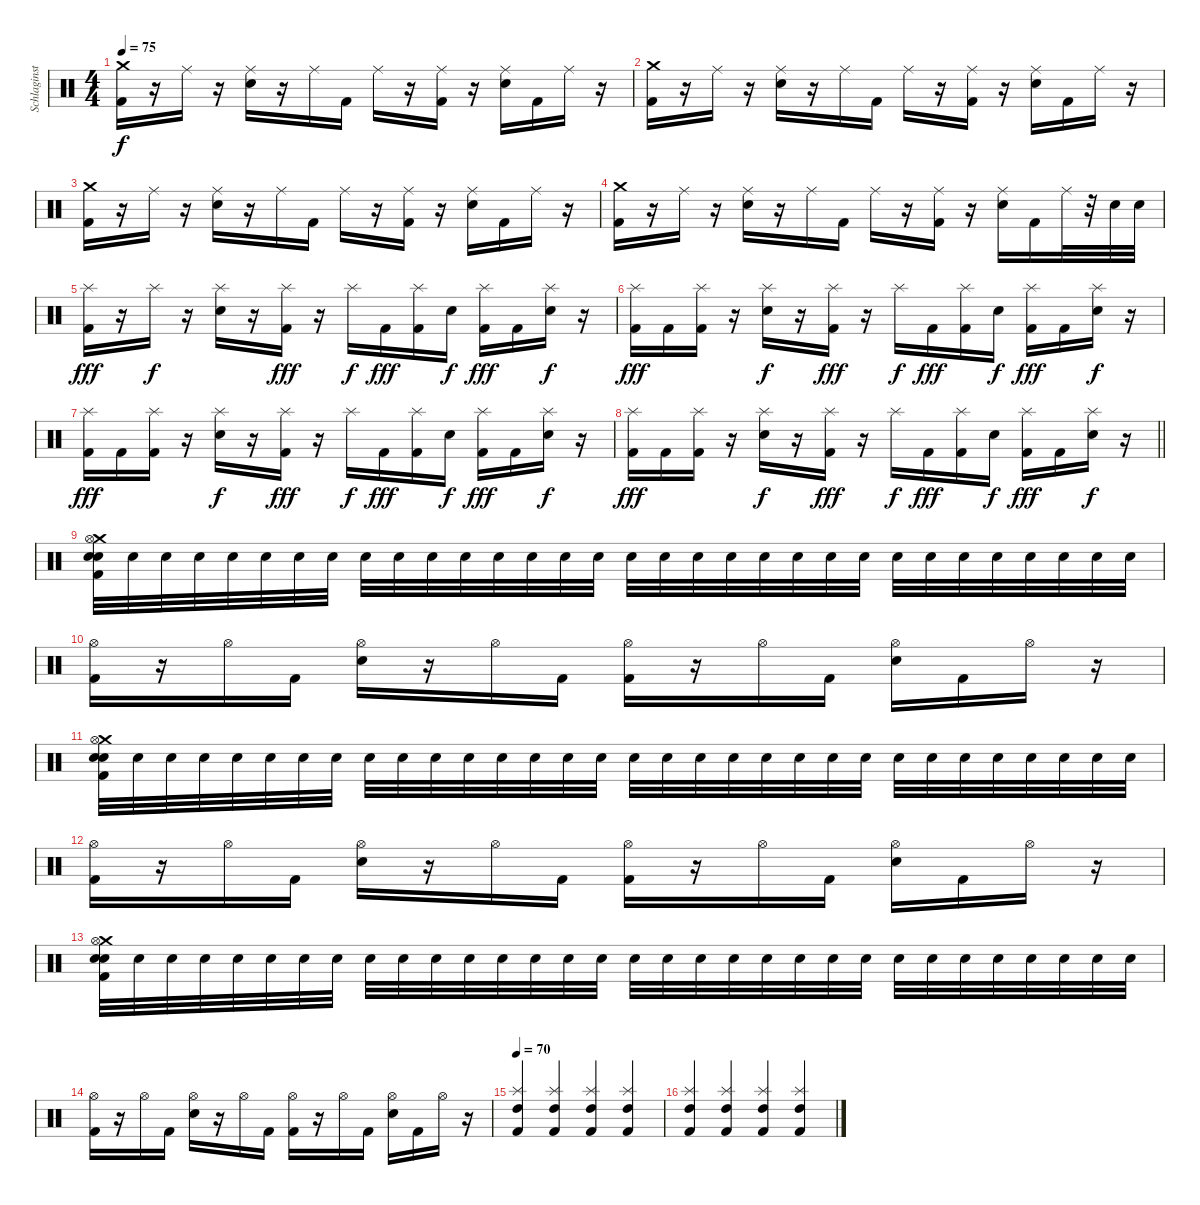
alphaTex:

\track ("Schlaginstrumente - Auswahl" "Schlaginst") {instrument percussion}
\staff {score}
\articulation defaults
\ts (4 4)
\tempo 75
\clef neutral
\ks c
("Crash medium (hit)" "Kick (hit) 2").16{dy f} r.16 "Ride (middle)".16 r.16 ("Ride (middle)" "Electric Snare (hit)").16 r.16 "Ride (middle)".16 "Kick (hit) 2".16 "Ride (middle)".16 r.16 ("Ride (middle)" "Kick (hit) 2").16 r.16 ("Ride (middle)" "Electric Snare (hit)").16 "Kick (hit) 2".16 "Ride (middle)".16 r.16 |
("Crash medium (hit)" "Kick (hit) 2").16 r.16 "Ride (middle)".16 r.16 ("Ride (middle)" "Electric Snare (hit)").16 r.16 "Ride (middle)".16 "Kick (hit) 2".16 "Ride (middle)".16 r.16 ("Ride (middle)" "Kick (hit) 2").16 r.16 ("Ride (middle)" "Electric Snare (hit)").16 "Kick (hit) 2".16 "Ride (middle)".16 r.16 |
("Crash medium (hit)" "Kick (hit) 2").16 r.16 "Ride (middle)".16 r.16 ("Ride (middle)" "Electric Snare (hit)").16 r.16 "Ride (middle)".16 "Kick (hit) 2".16 "Ride (middle)".16 r.16 ("Ride (middle)" "Kick (hit) 2").16 r.16 ("Ride (middle)" "Electric Snare (hit)").16 "Kick (hit) 2".16 "Ride (middle)".16 r.16 |
("Crash medium (hit)" "Kick (hit) 2").16 r.16 "Ride (middle)".16 r.16 ("Ride (middle)" "Electric Snare (hit)").16 r.16 "Ride (middle)".16 "Kick (hit) 2".16 "Ride (middle)".16 r.16 ("Ride (middle)" "Kick (hit) 2").16 r.16 ("Ride (middle)" "Electric Snare (hit)").16 "Kick (hit) 2".16 "Ride (middle)".32 r.32 "Electric Snare (hit)".32 "Electric Snare (hit)".32 |
("Splash (hit)" "Kick (hit) 2").16{dy fff} r.16 "Splash (hit)".16{dy f} r.16 ("Splash (hit)" "Electric Snare (hit)").16 r.16 ("Splash (hit)" "Kick (hit) 2").16{dy fff} r.16 "Splash (hit)".16{dy f} "Kick (hit) 2".16{dy fff} ("Splash (hit)" "Kick (hit) 2").16 "Electric Snare (hit)".16{dy f} ("Splash (hit)" "Kick (hit) 2").16{dy fff} "Kick (hit) 2".16 ("Splash (hit)" "Electric Snare (hit)").16{dy f} r.16 |
("Splash (hit)" "Kick (hit) 2").16{dy fff} "Kick (hit) 2".16 ("Splash (hit)" "Kick (hit) 2").16 r.16 ("Splash (hit)" "Electric Snare (hit)").16{dy f} r.16 ("Splash (hit)" "Kick (hit) 2").16{dy fff} r.16 "Splash (hit)".16{dy f} "Kick (hit) 2".16{dy fff} ("Splash (hit)" "Kick (hit) 2").16 "Electric Snare (hit)".16{dy f} ("Splash (hit)" "Kick (hit) 2").16{dy fff} "Kick (hit) 2".16 ("Splash (hit)" "Electric Snare (hit)").16{dy f} r.16 |
("Splash (hit)" "Kick (hit) 2").16{dy fff} "Kick (hit) 2".16 ("Splash (hit)" "Kick (hit) 2").16 r.16 ("Splash (hit)" "Electric Snare (hit)").16{dy f} r.16 ("Splash (hit)" "Kick (hit) 2").16{dy fff} r.16 "Splash (hit)".16{dy f} "Kick (hit) 2".16{dy fff} ("Splash (hit)" "Kick (hit) 2").16 "Electric Snare (hit)".16{dy f} ("Splash (hit)" "Kick (hit) 2").16{dy fff} "Kick (hit) 2".16 ("Splash (hit)" "Electric Snare (hit)").16{dy f} r.16 |
\barLineRight lightlight
("Splash (hit)" "Kick (hit) 2").16{dy fff} "Kick (hit) 2".16 ("Splash (hit)" "Kick (hit) 2").16 r.16 ("Splash (hit)" "Electric Snare (hit)").16{dy f} r.16 ("Splash (hit)" "Kick (hit) 2").16{dy fff} r.16 "Splash (hit)".16{dy f} "Kick (hit) 2".16{dy fff} ("Splash (hit)" "Kick (hit) 2").16 "Electric Snare (hit)".16{dy f} ("Splash (hit)" "Kick (hit) 2").16{dy fff} "Kick (hit) 2".16 ("Splash (hit)" "Electric Snare (hit)").16{dy f} r.16 |
("Crash medium (hit)" "Hi-Hat (open)" "Electric Snare (hit)" "Kick (hit) 2" "Electric Snare (hit)").32 "Electric Snare (hit)".32 "Electric Snare (hit)".32 "Electric Snare (hit)".32 "Electric Snare (hit)".32 "Electric Snare (hit)".32 "Electric Snare (hit)".32 "Electric Snare (hit)".32 "Electric Snare (hit)".32 "Electric Snare (hit)".32 "Electric Snare (hit)".32 "Electric Snare (hit)".32 "Electric Snare (hit)".32 "Electric Snare (hit)".32 "Electric Snare (hit)".32 "Electric Snare (hit)".32 "Electric Snare (hit)".32 "Electric Snare (hit)".32 "Electric Snare (hit)".32 "Electric Snare (hit)".32 "Electric Snare (hit)".32 "Electric Snare (hit)".32 "Electric Snare (hit)".32 "Electric Snare (hit)".32 "Electric Snare (hit)".32 "Electric Snare (hit)".32 "Electric Snare (hit)".32 "Electric Snare (hit)".32 "Electric Snare (hit)".32 "Electric Snare (hit)".32 "Electric Snare (hit)".32 "Electric Snare (hit)".32 |
("Hi-Hat (open)" "Kick (hit) 2").16 r.16 "Hi-Hat (open)".16 "Kick (hit) 2".16 ("Hi-Hat (open)" "Electric Snare (hit)").16 r.16 "Hi-Hat (open)".16 "Kick (hit) 2".16 ("Hi-Hat (open)" "Kick (hit) 2").16 r.16 "Hi-Hat (open)".16 "Kick (hit) 2".16 ("Hi-Hat (open)" "Electric Snare (hit)").16 "Kick (hit) 2".16 "Hi-Hat (open)".16 r.16 |
("Crash medium (hit)" "Hi-Hat (open)" "Electric Snare (hit)" "Kick (hit) 2" "Electric Snare (hit)").32 "Electric Snare (hit)".32 "Electric Snare (hit)".32 "Electric Snare (hit)".32 "Electric Snare (hit)".32 "Electric Snare (hit)".32 "Electric Snare (hit)".32 "Electric Snare (hit)".32 "Electric Snare (hit)".32 "Electric Snare (hit)".32 "Electric Snare (hit)".32 "Electric Snare (hit)".32 "Electric Snare (hit)".32 "Electric Snare (hit)".32 "Electric Snare (hit)".32 "Electric Snare (hit)".32 "Electric Snare (hit)".32 "Electric Snare (hit)".32 "Electric Snare (hit)".32 "Electric Snare (hit)".32 "Electric Snare (hit)".32 "Electric Snare (hit)".32 "Electric Snare (hit)".32 "Electric Snare (hit)".32 "Electric Snare (hit)".32 "Electric Snare (hit)".32 "Electric Snare (hit)".32 "Electric Snare (hit)".32 "Electric Snare (hit)".32 "Electric Snare (hit)".32 "Electric Snare (hit)".32 "Electric Snare (hit)".32 |
("Hi-Hat (open)" "Kick (hit) 2").16 r.16 "Hi-Hat (open)".16 "Kick (hit) 2".16 ("Hi-Hat (open)" "Electric Snare (hit)").16 r.16 "Hi-Hat (open)".16 "Kick (hit) 2".16 ("Hi-Hat (open)" "Kick (hit) 2").16 r.16 "Hi-Hat (open)".16 "Kick (hit) 2".16 ("Hi-Hat (open)" "Electric Snare (hit)").16 "Kick (hit) 2".16 "Hi-Hat (open)".16 r.16 |
("Crash medium (hit)" "Hi-Hat (open)" "Electric Snare (hit)" "Kick (hit) 2" "Electric Snare (hit)").32 "Electric Snare (hit)".32 "Electric Snare (hit)".32 "Electric Snare (hit)".32 "Electric Snare (hit)".32 "Electric Snare (hit)".32 "Electric Snare (hit)".32 "Electric Snare (hit)".32 "Electric Snare (hit)".32 "Electric Snare (hit)".32 "Electric Snare (hit)".32 "Electric Snare (hit)".32 "Electric Snare (hit)".32 "Electric Snare (hit)".32 "Electric Snare (hit)".32 "Electric Snare (hit)".32 "Electric Snare (hit)".32 "Electric Snare (hit)".32 "Electric Snare (hit)".32 "Electric Snare (hit)".32 "Electric Snare (hit)".32 "Electric Snare (hit)".32 "Electric Snare (hit)".32 "Electric Snare (hit)".32 "Electric Snare (hit)".32 "Electric Snare (hit)".32 "Electric Snare (hit)".32 "Electric Snare (hit)".32 "Electric Snare (hit)".32 "Electric Snare (hit)".32 "Electric Snare (hit)".32 "Electric Snare (hit)".32 |
("Hi-Hat (open)" "Kick (hit) 2").16 r.16 "Hi-Hat (open)".16 "Kick (hit) 2".16 ("Hi-Hat (open)" "Electric Snare (hit)").16 r.16 "Hi-Hat (open)".16 "Kick (hit) 2".16 ("Hi-Hat (open)" "Kick (hit) 2").16 r.16 "Hi-Hat (open)".16 "Kick (hit) 2".16 ("Hi-Hat (open)" "Electric Snare (hit)").16 "Kick (hit) 2".16 "Hi-Hat (open)".16 r.16 |
\tempo 70
("Splash (hit)" "High Tom (hit)" "Kick (hit) 2").4 ("Splash (hit)" "High Tom (hit)" "Kick (hit) 2").4 ("Splash (hit)" "High Tom (hit)" "Kick (hit) 2").4 ("Splash (hit)" "High Tom (hit)" "Kick (hit) 2").4 |
("Splash (hit)" "High Tom (hit)" "Kick (hit) 2").4 ("Splash (hit)" "High Tom (hit)" "Kick (hit) 2").4 ("Splash (hit)" "High Tom (hit)" "Kick (hit) 2").4 ("Splash (hit)" "High Tom (hit)" "Kick (hit) 2").4
